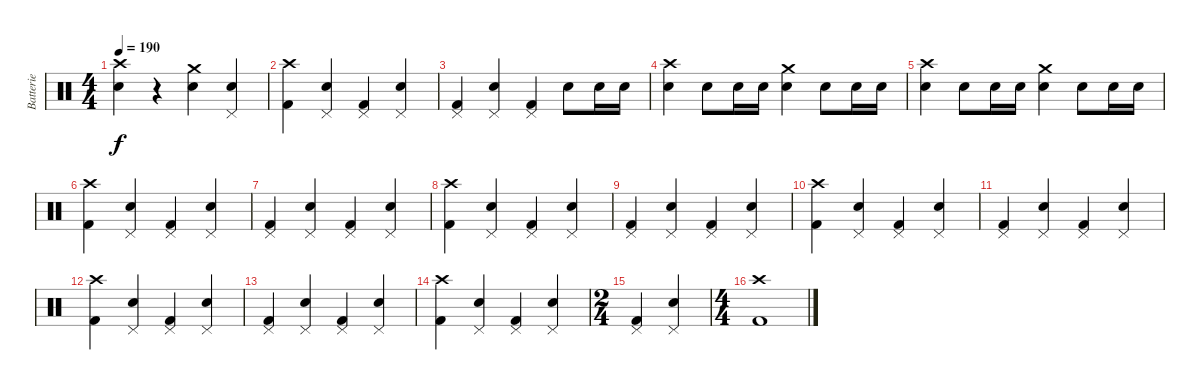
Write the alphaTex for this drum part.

\track ("Batterie" "Batterie") {instrument percussion}
\staff {score}
\articulation defaults
\ts (4 4)
\tempo 190
\clef neutral
\ks c
("Crash high (hit)" "Snare (hit) 2").4{dy f} r.4 ("Crash medium (hit)" "Snare (hit) 2").4 ("Pedal Hi-Hat (hit)" "Snare (hit) 2").4 |
("Crash high (hit)" "Kick (hit) 2").4 ("Pedal Hi-Hat (hit)" "Snare (hit) 2").4 ("Pedal Hi-Hat (hit)" "Kick (hit) 2").4 ("Pedal Hi-Hat (hit)" "Snare (hit) 2").4 |
("Pedal Hi-Hat (hit)" "Kick (hit) 2").4 ("Pedal Hi-Hat (hit)" "Snare (hit) 2").4 ("Pedal Hi-Hat (hit)" "Kick (hit) 2").4 "Snare (hit) 2".8 "Snare (hit) 2".16 "Snare (hit) 2".16 |
("Crash high (hit)" "Snare (hit) 2").4 "Snare (hit) 2".8 "Snare (hit) 2".16 "Snare (hit) 2".16 ("Crash medium (hit)" "Snare (hit) 2").4 "Snare (hit) 2".8 "Snare (hit) 2".16 "Snare (hit) 2".16 |
("Crash high (hit)" "Snare (hit) 2").4 "Snare (hit) 2".8 "Snare (hit) 2".16 "Snare (hit) 2".16 ("Crash medium (hit)" "Snare (hit) 2").4 "Snare (hit) 2".8 "Snare (hit) 2".16 "Snare (hit) 2".16 |
("Crash high (hit)" "Kick (hit) 2").4 ("Pedal Hi-Hat (hit)" "Snare (hit) 2").4 ("Pedal Hi-Hat (hit)" "Kick (hit) 2").4 ("Pedal Hi-Hat (hit)" "Snare (hit) 2").4 |
("Pedal Hi-Hat (hit)" "Kick (hit) 2").4 ("Pedal Hi-Hat (hit)" "Snare (hit) 2").4 ("Pedal Hi-Hat (hit)" "Kick (hit) 2").4 ("Pedal Hi-Hat (hit)" "Snare (hit) 2").4 |
("Crash high (hit)" "Kick (hit) 2").4 ("Pedal Hi-Hat (hit)" "Snare (hit) 2").4 ("Pedal Hi-Hat (hit)" "Kick (hit) 2").4 ("Pedal Hi-Hat (hit)" "Snare (hit) 2").4 |
("Pedal Hi-Hat (hit)" "Kick (hit) 2").4 ("Pedal Hi-Hat (hit)" "Snare (hit) 2").4 ("Pedal Hi-Hat (hit)" "Kick (hit) 2").4 ("Pedal Hi-Hat (hit)" "Snare (hit) 2").4 |
("Crash high (hit)" "Kick (hit) 2").4 ("Pedal Hi-Hat (hit)" "Snare (hit) 2").4 ("Pedal Hi-Hat (hit)" "Kick (hit) 2").4 ("Pedal Hi-Hat (hit)" "Snare (hit) 2").4 |
("Pedal Hi-Hat (hit)" "Kick (hit) 2").4 ("Pedal Hi-Hat (hit)" "Snare (hit) 2").4 ("Pedal Hi-Hat (hit)" "Kick (hit) 2").4 ("Pedal Hi-Hat (hit)" "Snare (hit) 2").4 |
("Crash high (hit)" "Kick (hit) 2").4 ("Pedal Hi-Hat (hit)" "Snare (hit) 2").4 ("Pedal Hi-Hat (hit)" "Kick (hit) 2").4 ("Pedal Hi-Hat (hit)" "Snare (hit) 2").4 |
("Pedal Hi-Hat (hit)" "Kick (hit) 2").4 ("Pedal Hi-Hat (hit)" "Snare (hit) 2").4 ("Pedal Hi-Hat (hit)" "Kick (hit) 2").4 ("Pedal Hi-Hat (hit)" "Snare (hit) 2").4 |
("Crash high (hit)" "Kick (hit) 2").4 ("Pedal Hi-Hat (hit)" "Snare (hit) 2").4 ("Pedal Hi-Hat (hit)" "Kick (hit) 2").4 ("Pedal Hi-Hat (hit)" "Snare (hit) 2").4 |
\ts (2 4)
("Pedal Hi-Hat (hit)" "Kick (hit) 2").4 ("Pedal Hi-Hat (hit)" "Snare (hit) 2").4 |
\ts (4 4)
("Crash high (hit)" "Kick (hit) 2").1
